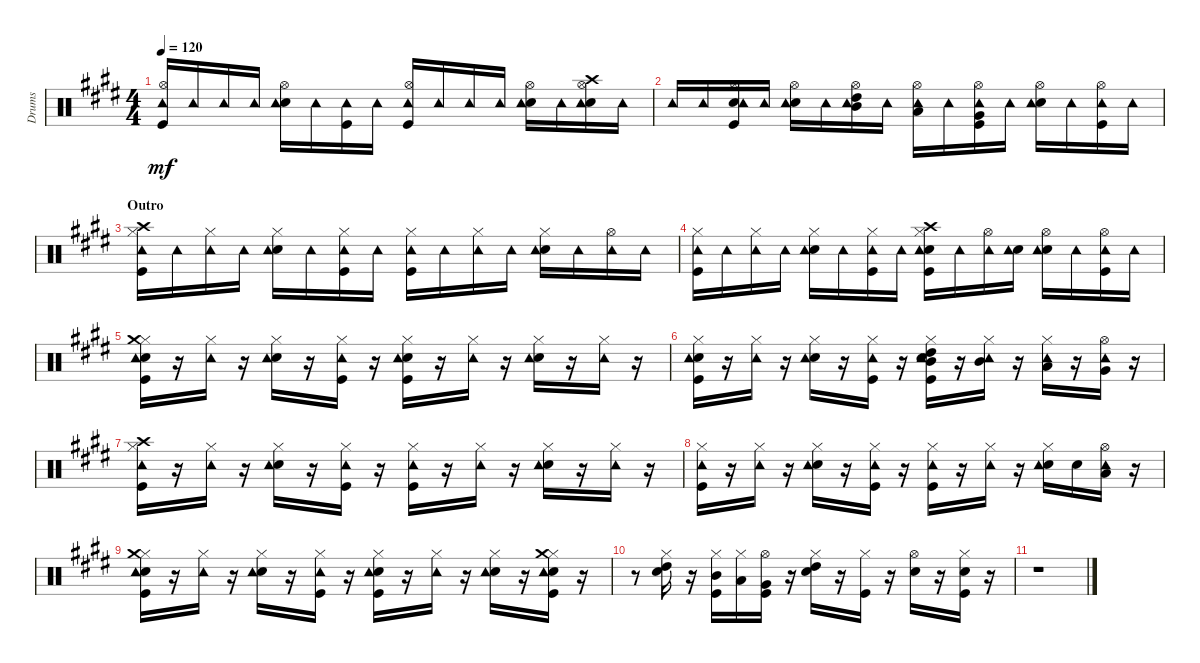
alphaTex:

\track ("Drums" "Drums") {instrument percussion}
\staff {score}
\articulation defaults
\ts (4 4)
\tempo 120
\clef neutral
\ks c#minor
("Kick (hit)" "Hi-Hat (open)" "Tambourine (hit)").16{dy mf} "Tambourine (hit)".16 "Tambourine (hit)".16 "Tambourine (hit)".16 ("Snare (hit) 2" "Hi-Hat (open)" "Tambourine (hit)").16 "Tambourine (hit)".16 ("Kick (hit)" "Tambourine (hit)").16 "Tambourine (hit)".16 ("Kick (hit)" "Hi-Hat (open)" "Tambourine (hit)").16 "Tambourine (hit)".16 "Tambourine (hit)".16 "Tambourine (hit)".16 ("Snare (hit) 2" "Hi-Hat (open)" "Tambourine (hit)").16 "Tambourine (hit)".16 ("Snare (hit) 2" "Hi-Hat (open)" "Crash high (hit)" "Tambourine (hit)").16 "Tambourine (hit)".16 |
"Tambourine (hit)".16 "Tambourine (hit)".16 ("Kick (hit)" "Snare (hit) 2" "Hi-Hat (open)" "Tambourine (hit)").16 "Tambourine (hit)".16 ("Snare (hit) 2" "Hi-Hat (open)" "Tambourine (hit)").16 "Tambourine (hit)".16 ("Hi-Hat (open)" "Mid Tom (hit)" "High Tom (hit)" "Tambourine (hit)").16 "Tambourine (hit)".16 ("Low Tom (hit)" "Hi-Hat (open)" "Tambourine (hit)").16 "Tambourine (hit)".16 ("Kick (hit)" "Very Low Tom (hit)" "Hi-Hat (open)" "Tambourine (hit)").16 "Tambourine (hit)".16 ("Snare (hit) 2" "Hi-Hat (open)" "Tambourine (hit)").16 "Tambourine (hit)".16 ("Kick (hit)" "Hi-Hat (open)" "Tambourine (hit)").16 "Tambourine (hit)".16 |
\section ("" "Outro")
("Kick (hit)" "Hi-Hat (closed)" "Crash high (hit)" "Tambourine (hit)").16 "Tambourine (hit)".16 ("Hi-Hat (closed)" "Tambourine (hit)").16 "Tambourine (hit)".16 ("Snare (hit) 2" "Hi-Hat (closed)" "Tambourine (hit)").16 "Tambourine (hit)".16 ("Kick (hit)" "Hi-Hat (closed)" "Tambourine (hit)").16 "Tambourine (hit)".16 ("Kick (hit)" "Hi-Hat (closed)" "Tambourine (hit)").16 "Tambourine (hit)".16 ("Hi-Hat (closed)" "Tambourine (hit)").16 "Tambourine (hit)".16 ("Snare (hit) 2" "Hi-Hat (closed)" "Tambourine (hit)").16 "Tambourine (hit)".16 ("Hi-Hat (open)" "Tambourine (hit)").16 "Tambourine (hit)".16 |
("Kick (hit)" "Hi-Hat (closed)" "Tambourine (hit)").16 "Tambourine (hit)".16 ("Hi-Hat (closed)" "Tambourine (hit)").16 "Tambourine (hit)".16 ("Snare (hit) 2" "Hi-Hat (closed)" "Tambourine (hit)").16 "Tambourine (hit)".16 ("Kick (hit)" "Hi-Hat (closed)" "Tambourine (hit)").16 "Tambourine (hit)".16 ("Kick (hit)" "Snare (hit) 2" "Hi-Hat (closed)" "Crash high (hit)" "Tambourine (hit)").16 "Tambourine (hit)".16 ("Hi-Hat (open)" "Tambourine (hit)").16 ("Snare (hit) 2" "Tambourine (hit)").16 ("Snare (hit) 2" "Hi-Hat (open)" "Tambourine (hit)").16 "Tambourine (hit)".16 ("Kick (hit)" "Hi-Hat (open)" "Tambourine (hit)").16 "Tambourine (hit)".16 |
("Kick (hit)" "Snare (hit) 2" "Hi-Hat (closed)" "Tambourine (hit)" "Crash medium (hit)").16 r.16 ("Hi-Hat (closed)" "Tambourine (hit)").16 r.16 ("Snare (hit) 2" "Hi-Hat (closed)" "Tambourine (hit)").16 r.16 ("Kick (hit)" "Hi-Hat (closed)" "Tambourine (hit)").16 r.16 ("Kick (hit)" "Snare (hit) 2" "Hi-Hat (closed)" "Tambourine (hit)").16 r.16 ("Hi-Hat (closed)" "Tambourine (hit)").16 r.16 ("Snare (hit) 2" "Hi-Hat (closed)" "Tambourine (hit)").16 r.16 ("Hi-Hat (closed)" "Tambourine (hit)").16 r.16 |
("Kick (hit)" "Snare (hit) 2" "Hi-Hat (closed)" "Tambourine (hit)").16 r.16 ("Hi-Hat (closed)" "Tambourine (hit)").16 r.16 ("Snare (hit) 2" "Hi-Hat (closed)" "Tambourine (hit)").16 r.16 ("Kick (hit)" "Hi-Hat (closed)" "Tambourine (hit)").16 r.16 ("Kick (hit)" "Snare (hit) 2" "Hi-Hat (closed)" "Mid Tom (hit)" "High Tom (hit)" "Tambourine (hit)").16 r.16 ("Hi-Hat (closed)" "Mid Tom (hit)" "Tambourine (hit)").16 r.16 ("Hi-Hat (closed)" "Low Tom (hit)" "Tambourine (hit)").16 r.16 ("Very Low Tom (hit)" "Hi-Hat (open)" "Tambourine (hit)").16 r.16 |
("Kick (hit)" "Hi-Hat (closed)" "Crash high (hit)" "Tambourine (hit)").16 r.16 ("Hi-Hat (closed)" "Tambourine (hit)").16 r.16 ("Snare (hit) 2" "Hi-Hat (closed)" "Tambourine (hit)").16 r.16 ("Kick (hit)" "Hi-Hat (closed)" "Tambourine (hit)").16 r.16 ("Kick (hit)" "Hi-Hat (closed)" "Tambourine (hit)").16 r.16 ("Hi-Hat (closed)" "Tambourine (hit)").16 r.16 ("Snare (hit) 2" "Hi-Hat (closed)" "Tambourine (hit)").16 r.16 ("Hi-Hat (closed)" "Tambourine (hit)").16 r.16 |
("Kick (hit)" "Hi-Hat (closed)" "Tambourine (hit)").16 r.16 ("Hi-Hat (closed)" "Tambourine (hit)").16 r.16 ("Snare (hit) 2" "Hi-Hat (closed)" "Tambourine (hit)").16 r.16 ("Kick (hit)" "Hi-Hat (closed)" "Tambourine (hit)").16 r.16 ("Kick (hit)" "Hi-Hat (closed)" "Tambourine (hit)").16 r.16 ("Hi-Hat (closed)" "Tambourine (hit)").16 r.16 ("Snare (hit) 2" "Hi-Hat (closed)" "Tambourine (hit)").16 "Snare (hit) 2".16 ("Low Tom (hit)" "Hi-Hat (open)" "Tambourine (hit)").16 r.16 |
("Kick (hit)" "Snare (hit) 2" "Hi-Hat (closed)" "Tambourine (hit)" "Crash medium (hit)").16 r.16 ("Hi-Hat (closed)" "Tambourine (hit)").16 r.16 ("Snare (hit) 2" "Hi-Hat (closed)" "Tambourine (hit)").16 r.16 ("Kick (hit)" "Hi-Hat (closed)" "Tambourine (hit)").16 r.16 ("Kick (hit)" "Snare (hit) 2" "Hi-Hat (closed)" "Tambourine (hit)").16 r.16 ("Hi-Hat (closed)" "Tambourine (hit)").16 r.16 ("Snare (hit) 2" "Hi-Hat (closed)" "Tambourine (hit)").16 r.16 ("Kick (hit)" "Snare (hit) 2" "Hi-Hat (closed)" "Tambourine (hit)" "Crash medium (hit)").16 r.16 |
r.8 ("Snare (hit) 2" "Hi-Hat (closed)" "High Tom (hit)").16 r.16 ("Kick (hit)" "Hi-Hat (closed)" "Mid Tom (hit)").16 ("Hi-Hat (closed)" "Low Tom (hit)").16 ("Kick (hit)" "Very Low Tom (hit)" "Hi-Hat (open)").16 r.16 ("Snare (hit) 2" "Hi-Hat (closed)" "High Tom (hit)").16 r.16 ("Kick (hit)" "Hi-Hat (closed)").16 r.16 ("Snare (hit) 2" "Hi-Hat (open)").16 r.16 ("Kick (hit)" "Snare (hit) 2" "Hi-Hat (closed)").16 r.16 |
r.1
